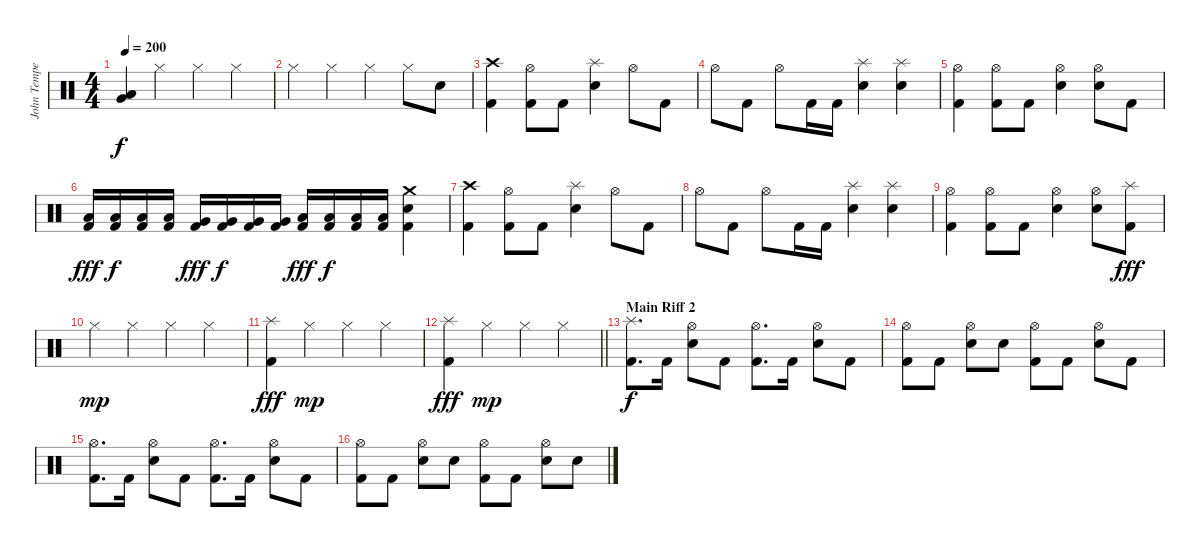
\track ("John Tempesta" "John Tempe") {instrument percussion}
\staff {score}
\articulation defaults
\ts (4 4)
\tempo 200
\clef neutral
\ks c
("Low Floor Tom (hit)" "Very Low Tom (hit)").4{dy f} "Hi-Hat (closed)".4 "Hi-Hat (closed)".4 "Hi-Hat (closed)".4 |
"Hi-Hat (closed)".4 "Hi-Hat (closed)".4 "Hi-Hat (closed)".4 "Hi-Hat (closed)".8 "Electric Snare (hit)".8 |
("Crash high (hit)" "Kick (hit) 2").4 ("Hi-Hat (open)" "Kick (hit) 2").8 "Kick (hit) 2".8 ("Electric Snare (hit)" "Splash (hit)").4 "Hi-Hat (open)".8 "Kick (hit) 2".8 |
"Hi-Hat (open)".8 "Kick (hit) 2".8 "Hi-Hat (open)".8 "Kick (hit) 2".16 "Kick (hit) 2".16 ("Electric Snare (hit)" "Splash (hit)").4 ("Electric Snare (hit)" "Splash (hit)").4 |
("Hi-Hat (open)" "Kick (hit) 2").4 ("Hi-Hat (open)" "Kick (hit) 2").8 "Kick (hit) 2".8 ("Electric Snare (hit)" "Hi-Hat (open)").4 ("Electric Snare (hit)" "Hi-Hat (open)").8 "Kick (hit) 2".8 |
("Low Tom (hit)" "Kick (hit) 2").16{dy fff} ("Low Tom (hit)" "Kick (hit) 2").16{dy f} ("Low Tom (hit)" "Kick (hit) 2").16 ("Low Tom (hit)" "Kick (hit) 2").16 ("Very Low Tom (hit)" "Kick (hit) 2").16{dy fff} ("Very Low Tom (hit)" "Kick (hit) 2").16{dy f} ("Very Low Tom (hit)" "Kick (hit) 2").16 ("Very Low Tom (hit)" "Kick (hit) 2").16 ("Low Floor Tom (hit)" "Kick (hit) 2").16{dy fff} ("Low Floor Tom (hit)" "Kick (hit) 2").16{dy f} ("Low Floor Tom (hit)" "Kick (hit) 2").16 ("Low Floor Tom (hit)" "Kick (hit) 2").16 ("Electric Snare (hit)" "Crash medium (hit)" "Kick (hit) 2").4 |
("Crash high (hit)" "Kick (hit) 2").4 ("Hi-Hat (open)" "Kick (hit) 2").8 "Kick (hit) 2".8 ("Electric Snare (hit)" "Splash (hit)").4 "Hi-Hat (open)".8 "Kick (hit) 2".8 |
"Hi-Hat (open)".8 "Kick (hit) 2".8 "Hi-Hat (open)".8 "Kick (hit) 2".16 "Kick (hit) 2".16 ("Electric Snare (hit)" "Splash (hit)").4 ("Electric Snare (hit)" "Splash (hit)").4 |
("Hi-Hat (open)" "Kick (hit) 2").4 ("Hi-Hat (open)" "Kick (hit) 2").8 "Kick (hit) 2".8 ("Electric Snare (hit)" "Hi-Hat (open)").4 ("Electric Snare (hit)" "Hi-Hat (open)").8 ("Splash (hit)" "Kick (hit) 2").8{dy fff} |
"Hi-Hat (closed)".4{dy mp} "Hi-Hat (closed)".4 "Hi-Hat (closed)".4 "Hi-Hat (closed)".4 |
("Splash (hit)" "Kick (hit) 2").4{dy fff} "Hi-Hat (closed)".4{dy mp} "Hi-Hat (closed)".4 "Hi-Hat (closed)".4 |
\barLineRight lightlight
("Splash (hit)" "Kick (hit) 2").4{dy fff} "Hi-Hat (closed)".4{dy mp} "Hi-Hat (closed)".4 "Hi-Hat (closed)".4 |
\section ("" "Main Riff 2")
("Splash (hit)" "Kick (hit) 2").8{d dy f} "Kick (hit) 2".16 ("Electric Snare (hit)" "Hi-Hat (open)").8 "Kick (hit) 2".8 ("Hi-Hat (open)" "Kick (hit) 2").8{d} "Kick (hit) 2".16 ("Electric Snare (hit)" "Hi-Hat (open)").8 "Kick (hit) 2".8 |
("Hi-Hat (open)" "Kick (hit) 2").8 "Kick (hit) 2".8 ("Electric Snare (hit)" "Hi-Hat (open)").8 "Electric Snare (hit)".8 ("Hi-Hat (open)" "Kick (hit) 2").8 "Kick (hit) 2".8 ("Electric Snare (hit)" "Hi-Hat (open)").8 "Kick (hit) 2".8 |
("Hi-Hat (open)" "Kick (hit) 2").8{d} "Kick (hit) 2".16 ("Electric Snare (hit)" "Hi-Hat (open)").8 "Kick (hit) 2".8 ("Hi-Hat (open)" "Kick (hit) 2").8{d} "Kick (hit) 2".16 ("Electric Snare (hit)" "Hi-Hat (open)").8 "Kick (hit) 2".8 |
("Hi-Hat (open)" "Kick (hit) 2").8 "Kick (hit) 2".8 ("Electric Snare (hit)" "Hi-Hat (open)").8 "Electric Snare (hit)".8 ("Hi-Hat (open)" "Kick (hit) 2").8 "Kick (hit) 2".8 ("Electric Snare (hit)" "Hi-Hat (open)").8 "Electric Snare (hit)".8
